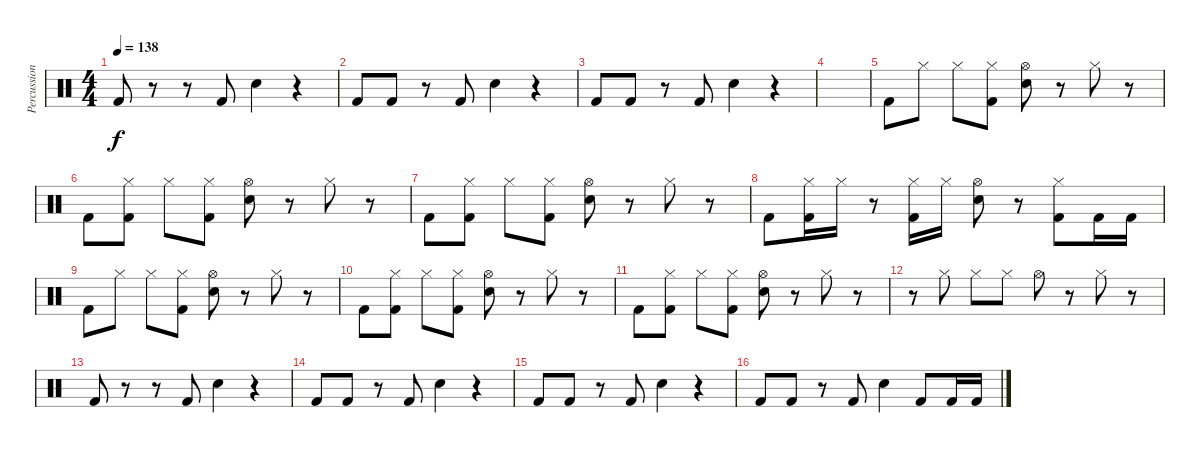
\track ("Percussion" "Percussion") {instrument percussion}
\staff {score}
\articulation defaults
\ts (4 4)
\tempo 138
\clef neutral
\ks c "Kick (hit) 2".8{dy f}
r.8 r.8 "Kick (hit) 2".8 "Electric Snare (hit)".4 r.4 |
"Kick (hit) 2".8 "Kick (hit) 2".8 r.8 "Kick (hit) 2".8 "Electric Snare (hit)".4 r.4 |
"Kick (hit) 2".8 "Kick (hit) 2".8 r.8 "Kick (hit) 2".8 "Electric Snare (hit)".4 r.4 |
|
"Kick (hit) 2".8 "Hi-Hat (closed)".8 "Hi-Hat (closed)".8 ("Hi-Hat (closed)" "Kick (hit) 2").8 ("Hi-Hat (open)" "Electric Snare (hit)").8 r.8 "Hi-Hat (closed)".8 r.8 |
"Kick (hit) 2".8 ("Hi-Hat (closed)" "Kick (hit) 2").8 "Hi-Hat (closed)".8 ("Hi-Hat (closed)" "Kick (hit) 2").8 ("Hi-Hat (open)" "Electric Snare (hit)").8 r.8 "Hi-Hat (closed)".8 r.8 |
"Kick (hit) 2".8 ("Hi-Hat (closed)" "Kick (hit) 2").8 "Hi-Hat (closed)".8 ("Hi-Hat (closed)" "Kick (hit) 2").8 ("Hi-Hat (open)" "Electric Snare (hit)").8 r.8 "Hi-Hat (closed)".8 r.8 |
"Kick (hit) 2".8 ("Hi-Hat (closed)" "Kick (hit) 2").16 "Hi-Hat (closed)".16 r.8 ("Hi-Hat (closed)" "Kick (hit) 2").16 "Hi-Hat (closed)".16 ("Hi-Hat (open)" "Electric Snare (hit)").8 r.8 ("Hi-Hat (closed)" "Kick (hit) 2").8 "Kick (hit) 2".16 "Kick (hit) 2".16 |
"Kick (hit) 2".8 "Hi-Hat (closed)".8 "Hi-Hat (closed)".8 ("Hi-Hat (closed)" "Kick (hit) 2").8 ("Hi-Hat (open)" "Electric Snare (hit)").8 r.8 "Hi-Hat (closed)".8 r.8 |
"Kick (hit) 2".8 ("Hi-Hat (closed)" "Kick (hit) 2").8 "Hi-Hat (closed)".8 ("Hi-Hat (closed)" "Kick (hit) 2").8 ("Hi-Hat (open)" "Electric Snare (hit)").8 r.8 "Hi-Hat (closed)".8 r.8 |
"Kick (hit) 2".8 ("Hi-Hat (closed)" "Kick (hit) 2").8 "Hi-Hat (closed)".8 ("Hi-Hat (closed)" "Kick (hit) 2").8 ("Hi-Hat (open)" "Electric Snare (hit)").8 r.8 "Hi-Hat (closed)".8 r.8 |
r.8 "Hi-Hat (closed)".8 "Hi-Hat (closed)".8 "Hi-Hat (closed)".8 "Hi-Hat (open)".8 r.8 "Hi-Hat (closed)".8 r.8 |
"Kick (hit) 2".8 r.8 r.8 "Kick (hit) 2".8 "Electric Snare (hit)".4 r.4 |
"Kick (hit) 2".8 "Kick (hit) 2".8 r.8 "Kick (hit) 2".8 "Electric Snare (hit)".4 r.4 |
"Kick (hit) 2".8 "Kick (hit) 2".8 r.8 "Kick (hit) 2".8 "Electric Snare (hit)".4 r.4 |
"Kick (hit) 2".8 "Kick (hit) 2".8 r.8 "Kick (hit) 2".8 "Electric Snare (hit)".4 "Kick (hit) 2".8 "Kick (hit) 2".16 "Kick (hit) 2".16
